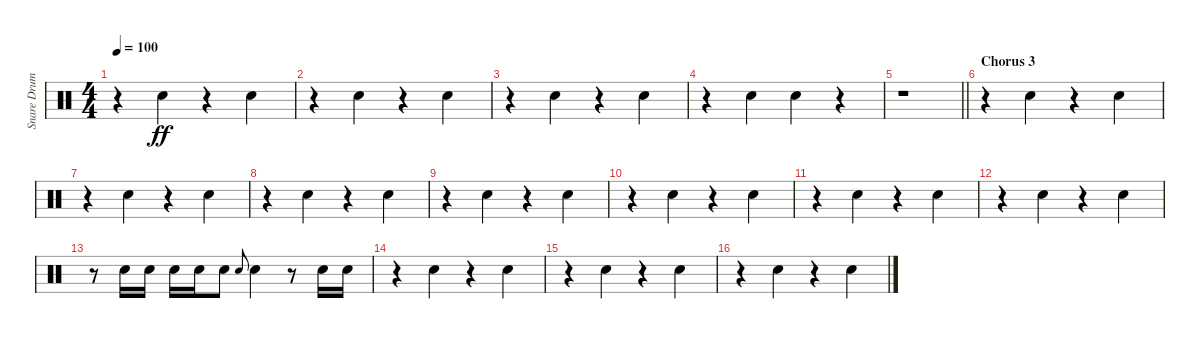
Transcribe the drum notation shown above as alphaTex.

\track ("Snare Drum" "Snare Drum") {instrument percussion}
\staff {score}
\articulation defaults
\ts (4 4)
\tempo 100
\clef neutral
\ks c
r.4{dy fff beam merge} "Electric Snare (hit)".4{dy ff} r.4{beam merge} "Electric Snare (hit)".4 |
r.4{beam merge} "Electric Snare (hit)".4 r.4{beam merge} "Electric Snare (hit)".4 |
r.4{beam merge} "Electric Snare (hit)".4 r.4{beam merge} "Electric Snare (hit)".4 |
r.4{beam merge} "Electric Snare (hit)".4 "Electric Snare (hit)".4 r.4 |
\barLineRight lightlight
\ks aminor
r.1 |
\section ("" "Chorus 3")
\ks c
r.4{beam merge} "Electric Snare (hit)".4 r.4{beam merge} "Electric Snare (hit)".4 |
r.4{beam merge} "Electric Snare (hit)".4 r.4{beam merge} "Electric Snare (hit)".4 |
r.4{beam merge} "Electric Snare (hit)".4 r.4{beam merge} "Electric Snare (hit)".4 |
r.4{beam merge} "Electric Snare (hit)".4 r.4{beam merge} "Electric Snare (hit)".4 |
r.4{beam merge} "Electric Snare (hit)".4 r.4{beam merge} "Electric Snare (hit)".4 |
r.4{beam merge} "Electric Snare (hit)".4 r.4{beam merge} "Electric Snare (hit)".4 |
r.4{beam merge} "Electric Snare (hit)".4 r.4{beam merge} "Electric Snare (hit)".4 |
r.8 "Electric Snare (hit)".16 "Electric Snare (hit)".16 "Electric Snare (hit)".16 "Electric Snare (hit)".16 "Electric Snare (hit)".8 "Electric Snare (hit)".8{gr onbeat} "Electric Snare (hit)".4 r.8 "Electric Snare (hit)".16 "Electric Snare (hit)".16 |
r.4{beam merge} "Electric Snare (hit)".4 r.4{beam merge} "Electric Snare (hit)".4 |
r.4{beam merge} "Electric Snare (hit)".4 r.4{beam merge} "Electric Snare (hit)".4 |
r.4{beam merge} "Electric Snare (hit)".4 r.4{beam merge} "Electric Snare (hit)".4
